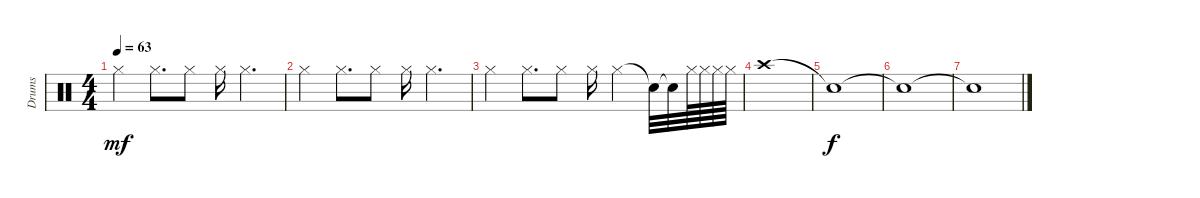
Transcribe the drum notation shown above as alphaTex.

\track ("Drums" "Drums") {instrument percussion}
\staff {score}
\articulation defaults
\ts (4 4)
\tempo 63
\clef neutral
\ks c "Hi-Hat (closed)".4{dy mf} "Hi-Hat (closed)".8{d} "Hi-Hat (closed)".8 "Hi-Hat (closed)".16 "Hi-Hat (closed)".4{d}
|
"Hi-Hat (closed)".4 "Hi-Hat (closed)".8{d} "Hi-Hat (closed)".8 "Hi-Hat (closed)".16 "Hi-Hat (closed)".4{d} |
"Hi-Hat (closed)".4 "Hi-Hat (closed)".8{d} "Hi-Hat (closed)".8 "Hi-Hat (closed)".16 "Hi-Hat (closed)".4 "Snare (hit)"{t}.32 "Snare (hit)"{t}.32 "Hi-Hat (closed)".64 "Hi-Hat (closed)".64 "Hi-Hat (closed)".64 "Hi-Hat (closed)".64 |
"Crash high (hit)".1 |
"Snare (hit)"{t}.1{dy f} |
"Snare (hit)"{t}.1 |
"Snare (hit)"{t}.1
